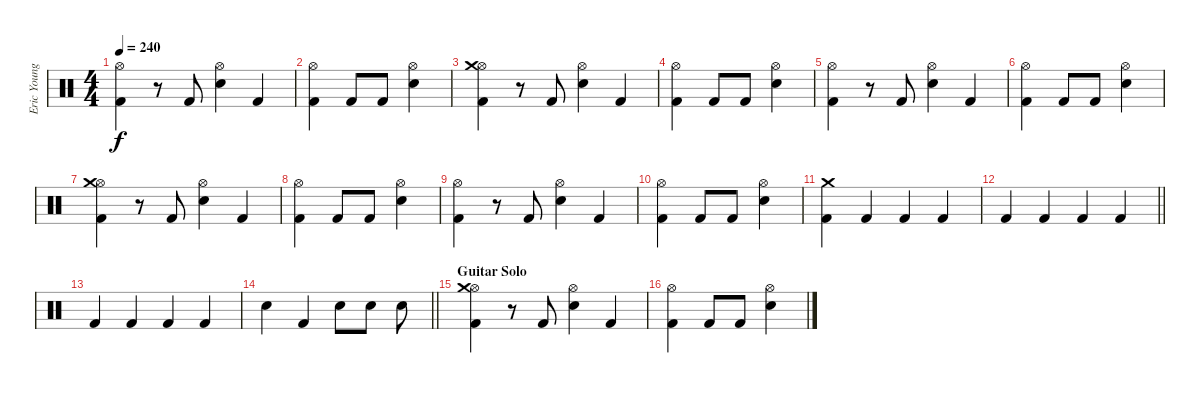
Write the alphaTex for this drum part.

\track ("Eric Young (Drums)" "Eric Young") {instrument percussion}
\staff {score}
\articulation defaults
\ts (4 4)
\tempo 240
\clef neutral
\ks c
("Hi-Hat (open)" "Kick (hit) 2").4{dy f} r.8 "Kick (hit) 2".8 ("Hi-Hat (open)" "Snare (hit) 2").4 "Kick (hit) 2".4 |
("Hi-Hat (open)" "Kick (hit) 2").4 "Kick (hit) 2".8 "Kick (hit) 2".8 ("Hi-Hat (open)" "Snare (hit) 2").4 |
("Hi-Hat (open)" "Kick (hit) 2" "Crash medium (hit)").4 r.8 "Kick (hit) 2".8 ("Hi-Hat (open)" "Snare (hit) 2").4 "Kick (hit) 2".4 |
("Hi-Hat (open)" "Kick (hit) 2").4 "Kick (hit) 2".8 "Kick (hit) 2".8 ("Hi-Hat (open)" "Snare (hit) 2").4 |
("Hi-Hat (open)" "Kick (hit) 2").4 r.8 "Kick (hit) 2".8 ("Hi-Hat (open)" "Snare (hit) 2").4 "Kick (hit) 2".4 |
("Hi-Hat (open)" "Kick (hit) 2").4 "Kick (hit) 2".8 "Kick (hit) 2".8 ("Hi-Hat (open)" "Snare (hit) 2").4 |
("Hi-Hat (open)" "Kick (hit) 2" "Crash medium (hit)").4 r.8 "Kick (hit) 2".8 ("Hi-Hat (open)" "Snare (hit) 2").4 "Kick (hit) 2".4 |
("Hi-Hat (open)" "Kick (hit) 2").4 "Kick (hit) 2".8 "Kick (hit) 2".8 ("Hi-Hat (open)" "Snare (hit) 2").4 |
("Hi-Hat (open)" "Kick (hit) 2").4 r.8 "Kick (hit) 2".8 ("Hi-Hat (open)" "Snare (hit) 2").4 "Kick (hit) 2".4 |
("Hi-Hat (open)" "Kick (hit) 2").4 "Kick (hit) 2".8 "Kick (hit) 2".8 ("Hi-Hat (open)" "Snare (hit) 2").4 |
("Kick (hit) 2" "Crash medium (hit)").4 "Kick (hit) 2".4 "Kick (hit) 2".4 "Kick (hit) 2".4 |
\barLineRight lightlight "Kick (hit) 2".4 "Kick (hit) 2".4 "Kick (hit) 2".4 "Kick (hit) 2".4
|
"Kick (hit) 2".4 "Kick (hit) 2".4 "Kick (hit) 2".4 "Kick (hit) 2".4 |
\barLineRight lightlight "Snare (hit) 2".4 "Kick (hit) 2".4 "Snare (hit) 2".8 "Snare (hit) 2".8 "Snare (hit) 2".8
|
\section ("" "Guitar Solo")
("Hi-Hat (open)" "Kick (hit) 2" "Crash medium (hit)").4 r.8 "Kick (hit) 2".8 ("Hi-Hat (open)" "Snare (hit) 2").4 "Kick (hit) 2".4 |
("Hi-Hat (open)" "Kick (hit) 2").4 "Kick (hit) 2".8 "Kick (hit) 2".8 ("Hi-Hat (open)" "Snare (hit) 2").4
